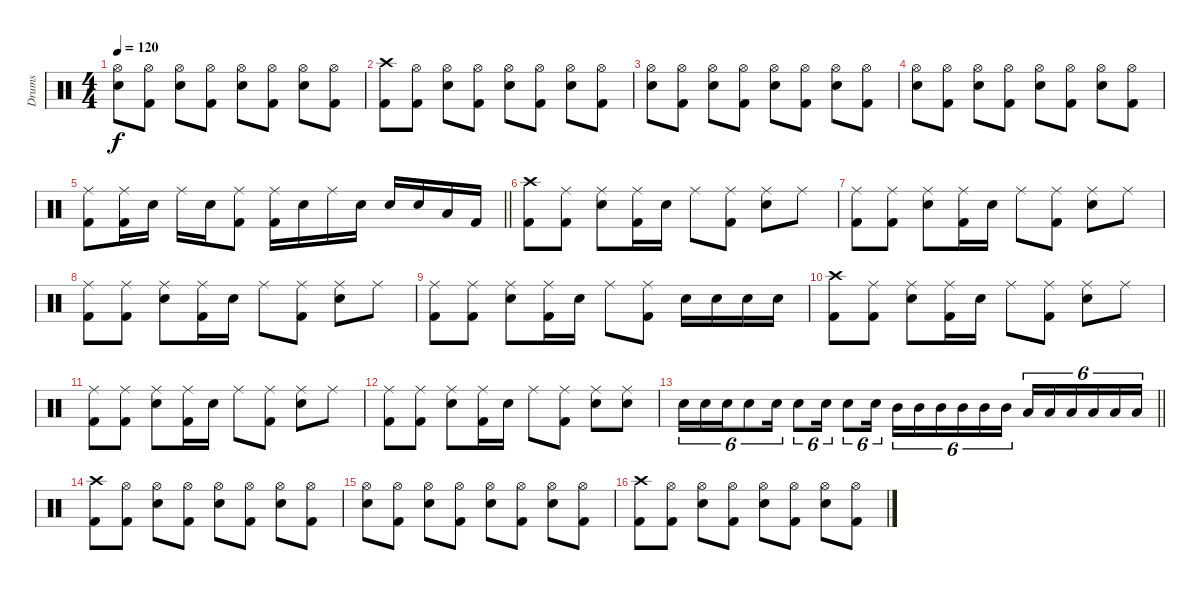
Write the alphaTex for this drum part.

\track ("Drums" "Drums") {instrument percussion}
\staff {score}
\articulation defaults
\ts (4 4)
\tempo 120
\clef neutral
\ks c
("Hi-Hat (open)" "Snare (hit) 2").8{dy f} ("Hi-Hat (open)" "Kick (hit) 2").8 ("Hi-Hat (open)" "Snare (hit) 2").8 ("Hi-Hat (open)" "Kick (hit) 2").8 ("Hi-Hat (open)" "Snare (hit) 2").8 ("Hi-Hat (open)" "Kick (hit) 2").8 ("Hi-Hat (open)" "Snare (hit) 2").8 ("Hi-Hat (open)" "Kick (hit) 2").8 |
("Crash high (hit)" "Kick (hit) 2").8 ("Hi-Hat (open)" "Kick (hit) 2").8 ("Hi-Hat (open)" "Snare (hit) 2").8 ("Hi-Hat (open)" "Kick (hit) 2").8 ("Hi-Hat (open)" "Snare (hit) 2").8 ("Hi-Hat (open)" "Kick (hit) 2").8 ("Hi-Hat (open)" "Snare (hit) 2").8 ("Hi-Hat (open)" "Kick (hit) 2").8 |
("Hi-Hat (open)" "Snare (hit) 2").8 ("Hi-Hat (open)" "Kick (hit) 2").8 ("Hi-Hat (open)" "Snare (hit) 2").8 ("Hi-Hat (open)" "Kick (hit) 2").8 ("Hi-Hat (open)" "Snare (hit) 2").8 ("Hi-Hat (open)" "Kick (hit) 2").8 ("Hi-Hat (open)" "Snare (hit) 2").8 ("Hi-Hat (open)" "Kick (hit) 2").8 |
("Hi-Hat (open)" "Snare (hit) 2").8 ("Hi-Hat (open)" "Kick (hit) 2").8 ("Hi-Hat (open)" "Snare (hit) 2").8 ("Hi-Hat (open)" "Kick (hit) 2").8 ("Hi-Hat (open)" "Snare (hit) 2").8 ("Hi-Hat (open)" "Kick (hit) 2").8 ("Hi-Hat (open)" "Snare (hit) 2").8 ("Hi-Hat (open)" "Kick (hit) 2").8 |
\barLineRight lightlight
("Ride (middle)" "Kick (hit) 2").8 ("Ride (middle)" "Kick (hit) 2").16 "Snare (hit) 2".16 "Ride (middle)".16 "Snare (hit) 2".16 ("Ride (middle)" "Kick (hit) 2").8 ("Ride (middle)" "Kick (hit) 2").16 "Snare (hit) 2".16 "Ride (middle)".16 "Snare (hit) 2".16 "Snare (hit) 2".16 "Snare (hit) 2".16 "Low Floor Tom (hit)".16 "Kick (hit) 2".16 |
("Crash high (hit)" "Kick (hit) 2").8 ("Ride (middle)" "Kick (hit) 2").8 ("Ride (middle)" "Snare (hit) 2").8 ("Ride (middle)" "Kick (hit) 2").16 "Snare (hit) 2".16 "Ride (middle)".8 ("Ride (middle)" "Kick (hit) 2").8 ("Ride (middle)" "Snare (hit) 2").8 "Ride (middle)".8 |
("Ride (middle)" "Kick (hit) 2").8 ("Ride (middle)" "Kick (hit) 2").8 ("Ride (middle)" "Snare (hit) 2").8 ("Ride (middle)" "Kick (hit) 2").16 "Snare (hit) 2".16 "Ride (middle)".8 ("Ride (middle)" "Kick (hit) 2").8 ("Ride (middle)" "Snare (hit) 2").8 "Ride (middle)".8 |
("Ride (middle)" "Kick (hit) 2").8 ("Ride (middle)" "Kick (hit) 2").8 ("Ride (middle)" "Snare (hit) 2").8 ("Ride (middle)" "Kick (hit) 2").16 "Snare (hit) 2".16 "Ride (middle)".8 ("Ride (middle)" "Kick (hit) 2").8 ("Ride (middle)" "Snare (hit) 2").8 "Ride (middle)".8 |
("Ride (middle)" "Kick (hit) 2").8 ("Ride (middle)" "Kick (hit) 2").8 ("Ride (middle)" "Snare (hit) 2").8 ("Ride (middle)" "Kick (hit) 2").16 "Snare (hit) 2".16 "Ride (middle)".8 ("Ride (middle)" "Kick (hit) 2").8 "Snare (hit) 2".16 "Snare (hit) 2".16 "Snare (hit) 2".16 "Snare (hit) 2".16 |
("Crash high (hit)" "Kick (hit) 2").8 ("Ride (middle)" "Kick (hit) 2").8 ("Ride (middle)" "Snare (hit) 2").8 ("Ride (middle)" "Kick (hit) 2").16 "Snare (hit) 2".16 "Ride (middle)".8 ("Ride (middle)" "Kick (hit) 2").8 ("Ride (middle)" "Snare (hit) 2").8 "Ride (middle)".8 |
("Ride (middle)" "Kick (hit) 2").8 ("Ride (middle)" "Kick (hit) 2").8 ("Ride (middle)" "Snare (hit) 2").8 ("Ride (middle)" "Kick (hit) 2").16 "Snare (hit) 2".16 "Ride (middle)".8 ("Ride (middle)" "Kick (hit) 2").8 ("Ride (middle)" "Snare (hit) 2").8 "Ride (middle)".8 |
("Ride (middle)" "Kick (hit) 2").8 ("Ride (middle)" "Kick (hit) 2").8 ("Ride (middle)" "Snare (hit) 2").8 ("Ride (middle)" "Kick (hit) 2").16 "Snare (hit) 2".16 "Ride (middle)".8 ("Ride (middle)" "Kick (hit) 2").8 ("Ride (middle)" "Snare (hit) 2").8 ("Ride (middle)" "Snare (hit) 2").8 |
\barLineRight lightlight "Snare (hit) 2".16{tu (6 4)} "Snare (hit) 2".16{tu (6 4)} "Snare (hit) 2".16{tu (6 4)} "Snare (hit) 2".8{tu (6 4)} "Snare (hit) 2".16{tu (6 4)} "Snare (hit) 2".8{tu (6 4)} "Snare (hit) 2".16{tu (6 4)} "Snare (hit) 2".8{tu (6 4)} "Snare (hit) 2".16{tu (6 4)} "Mid Tom (hit)".16{tu (6 4)} "Mid Tom (hit)".16{tu (6 4)} "Mid Tom (hit)".16{tu (6 4)} "Mid Tom (hit)".16{tu (6 4)} "Mid Tom (hit)".16{tu (6 4)} "Mid Tom (hit)".16{tu (6 4)} "Low Floor Tom (hit)".16{tu (6 4)} "Low Floor Tom (hit)".16{tu (6 4)} "Low Floor Tom (hit)".16{tu (6 4)} "Low Floor Tom (hit)".16{tu (6 4)} "Low Floor Tom (hit)".16{tu (6 4)} "Low Floor Tom (hit)".16{tu (6 4)}
|
("Crash high (hit)" "Kick (hit) 2").8 ("Hi-Hat (open)" "Kick (hit) 2").8 ("Hi-Hat (open)" "Snare (hit) 2").8 ("Hi-Hat (open)" "Kick (hit) 2").8 ("Hi-Hat (open)" "Snare (hit) 2").8 ("Hi-Hat (open)" "Kick (hit) 2").8 ("Hi-Hat (open)" "Snare (hit) 2").8 ("Hi-Hat (open)" "Kick (hit) 2").8 |
("Hi-Hat (open)" "Snare (hit) 2").8 ("Hi-Hat (open)" "Kick (hit) 2").8 ("Hi-Hat (open)" "Snare (hit) 2").8 ("Hi-Hat (open)" "Kick (hit) 2").8 ("Hi-Hat (open)" "Snare (hit) 2").8 ("Hi-Hat (open)" "Kick (hit) 2").8 ("Hi-Hat (open)" "Snare (hit) 2").8 ("Hi-Hat (open)" "Kick (hit) 2").8 |
("Crash high (hit)" "Kick (hit) 2").8 ("Hi-Hat (open)" "Kick (hit) 2").8 ("Hi-Hat (open)" "Snare (hit) 2").8 ("Hi-Hat (open)" "Kick (hit) 2").8 ("Hi-Hat (open)" "Snare (hit) 2").8 ("Hi-Hat (open)" "Kick (hit) 2").8 ("Hi-Hat (open)" "Snare (hit) 2").8 ("Hi-Hat (open)" "Kick (hit) 2").8
